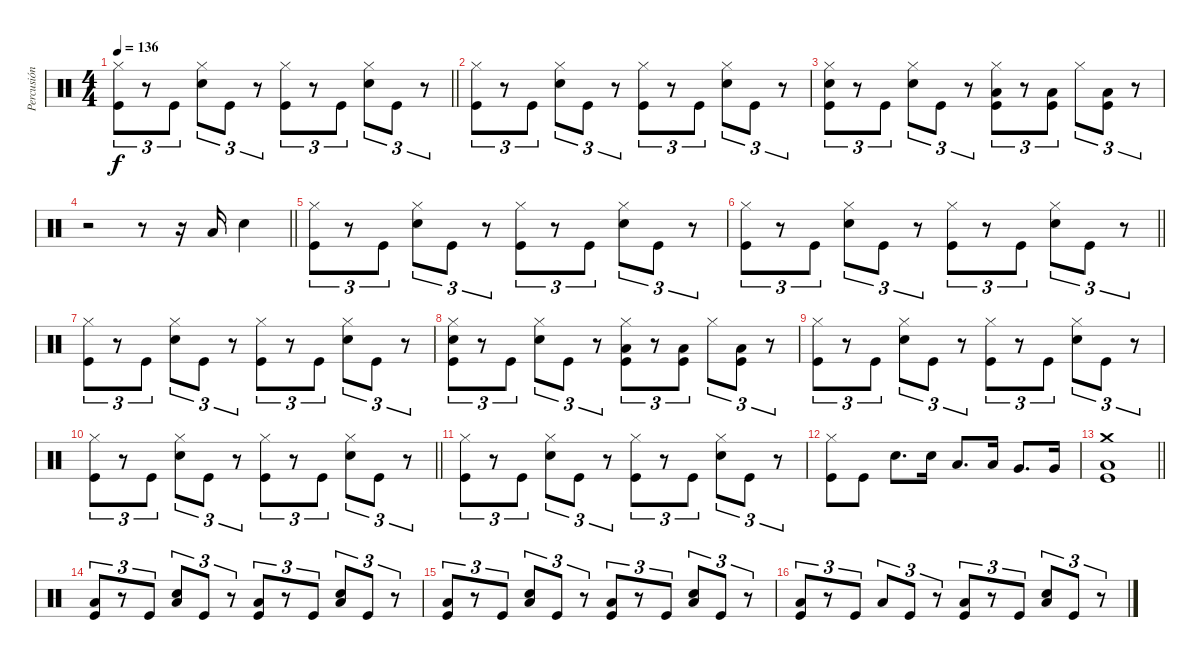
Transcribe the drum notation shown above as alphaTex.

\track ("Percusión" "Percusión") {instrument percussion}
\staff {score}
\articulation defaults
\ts (4 4)
\tempo 136
\clef neutral
\barLineRight lightlight
\ks c
("Hi-Hat (closed)" "Kick (hit)").8{tu (3 2) dy f} r.8{tu (3 2)} "Kick (hit)".8{tu (3 2)} ("Hi-Hat (closed)" "Snare (hit) 2").8{tu (3 2)} "Kick (hit)".8{tu (3 2)} r.8{tu (3 2)} ("Hi-Hat (closed)" "Kick (hit)").8{tu (3 2)} r.8{tu (3 2)} "Kick (hit)".8{tu (3 2)} ("Hi-Hat (closed)" "Snare (hit) 2").8{tu (3 2)} "Kick (hit)".8{tu (3 2)} r.8{tu (3 2)} |
("Hi-Hat (closed)" "Kick (hit)").8{tu (3 2)} r.8{tu (3 2)} "Kick (hit)".8{tu (3 2)} ("Hi-Hat (closed)" "Snare (hit) 2").8{tu (3 2)} "Kick (hit)".8{tu (3 2)} r.8{tu (3 2)} ("Hi-Hat (closed)" "Kick (hit)").8{tu (3 2)} r.8{tu (3 2)} "Kick (hit)".8{tu (3 2)} ("Hi-Hat (closed)" "Snare (hit) 2").8{tu (3 2)} "Kick (hit)".8{tu (3 2)} r.8{tu (3 2)} |
("Hi-Hat (closed)" "Snare (hit) 2" "Kick (hit)").8{tu (3 2)} r.8{tu (3 2)} "Kick (hit)".8{tu (3 2)} ("Hi-Hat (closed)" "Snare (hit) 2").8{tu (3 2)} "Kick (hit)".8{tu (3 2)} r.8{tu (3 2)} ("Hi-Hat (closed)" "Low Tom (hit)" "Kick (hit)").8{tu (3 2)} r.8{tu (3 2)} ("Low Tom (hit)" "Kick (hit)").8{tu (3 2)} "Hi-Hat (closed)".8{tu (3 2)} ("Low Tom (hit)" "Kick (hit)").8{tu (3 2)} r.8{tu (3 2)} |
\barLineRight lightlight
r.2 r.8 r.16 "Low Floor Tom (hit)".16 "Snare (hit) 2".4 |
("Hi-Hat (closed)" "Kick (hit)").8{tu (3 2)} r.8{tu (3 2)} "Kick (hit)".8{tu (3 2)} ("Hi-Hat (closed)" "Snare (hit) 2").8{tu (3 2)} "Kick (hit)".8{tu (3 2)} r.8{tu (3 2)} ("Hi-Hat (closed)" "Kick (hit)").8{tu (3 2)} r.8{tu (3 2)} "Kick (hit)".8{tu (3 2)} ("Hi-Hat (closed)" "Snare (hit) 2").8{tu (3 2)} "Kick (hit)".8{tu (3 2)} r.8{tu (3 2)} |
\barLineRight lightlight
("Hi-Hat (closed)" "Kick (hit)").8{tu (3 2)} r.8{tu (3 2)} "Kick (hit)".8{tu (3 2)} ("Hi-Hat (closed)" "Snare (hit) 2").8{tu (3 2)} "Kick (hit)".8{tu (3 2)} r.8{tu (3 2)} ("Hi-Hat (closed)" "Kick (hit)").8{tu (3 2)} r.8{tu (3 2)} "Kick (hit)".8{tu (3 2)} ("Hi-Hat (closed)" "Snare (hit) 2").8{tu (3 2)} "Kick (hit)".8{tu (3 2)} r.8{tu (3 2)} |
("Hi-Hat (closed)" "Kick (hit)").8{tu (3 2)} r.8{tu (3 2)} "Kick (hit)".8{tu (3 2)} ("Hi-Hat (closed)" "Snare (hit) 2").8{tu (3 2)} "Kick (hit)".8{tu (3 2)} r.8{tu (3 2)} ("Hi-Hat (closed)" "Kick (hit)").8{tu (3 2)} r.8{tu (3 2)} "Kick (hit)".8{tu (3 2)} ("Hi-Hat (closed)" "Snare (hit) 2").8{tu (3 2)} "Kick (hit)".8{tu (3 2)} r.8{tu (3 2)} |
("Hi-Hat (closed)" "Snare (hit) 2" "Kick (hit)").8{tu (3 2)} r.8{tu (3 2)} "Kick (hit)".8{tu (3 2)} ("Hi-Hat (closed)" "Snare (hit) 2").8{tu (3 2)} "Kick (hit)".8{tu (3 2)} r.8{tu (3 2)} ("Hi-Hat (closed)" "Low Tom (hit)" "Kick (hit)").8{tu (3 2)} r.8{tu (3 2)} ("Low Tom (hit)" "Kick (hit)").8{tu (3 2)} "Hi-Hat (closed)".8{tu (3 2)} ("Low Tom (hit)" "Kick (hit)").8{tu (3 2)} r.8{tu (3 2)} |
("Hi-Hat (closed)" "Kick (hit)").8{tu (3 2)} r.8{tu (3 2)} "Kick (hit)".8{tu (3 2)} ("Hi-Hat (closed)" "Snare (hit) 2").8{tu (3 2)} "Kick (hit)".8{tu (3 2)} r.8{tu (3 2)} ("Hi-Hat (closed)" "Kick (hit)").8{tu (3 2)} r.8{tu (3 2)} "Kick (hit)".8{tu (3 2)} ("Hi-Hat (closed)" "Snare (hit) 2").8{tu (3 2)} "Kick (hit)".8{tu (3 2)} r.8{tu (3 2)} |
\barLineRight lightlight
("Hi-Hat (closed)" "Kick (hit)").8{tu (3 2)} r.8{tu (3 2)} "Kick (hit)".8{tu (3 2)} ("Hi-Hat (closed)" "Snare (hit) 2").8{tu (3 2)} "Kick (hit)".8{tu (3 2)} r.8{tu (3 2)} ("Hi-Hat (closed)" "Kick (hit)").8{tu (3 2)} r.8{tu (3 2)} "Kick (hit)".8{tu (3 2)} ("Hi-Hat (closed)" "Snare (hit) 2").8{tu (3 2)} "Kick (hit)".8{tu (3 2)} r.8{tu (3 2)} |
("Hi-Hat (closed)" "Kick (hit)").8{tu (3 2)} r.8{tu (3 2)} "Kick (hit)".8{tu (3 2)} ("Hi-Hat (closed)" "Snare (hit) 2").8{tu (3 2)} "Kick (hit)".8{tu (3 2)} r.8{tu (3 2)} ("Hi-Hat (closed)" "Kick (hit)").8{tu (3 2)} r.8{tu (3 2)} "Kick (hit)".8{tu (3 2)} ("Hi-Hat (closed)" "Snare (hit) 2").8{tu (3 2)} "Kick (hit)".8{tu (3 2)} r.8{tu (3 2)} |
("Hi-Hat (closed)" "Kick (hit)").8 "Kick (hit)".8 "Snare (hit) 2".8{d} "Snare (hit) 2".16 "Low Tom (hit)".8{d} "Low Tom (hit)".16 "Very Low Tom (hit)".8{d} "Very Low Tom (hit)".16 |
\barLineRight lightlight
("Crash medium (hit)" "Low Floor Tom (hit)" "Kick (hit)").1 |
("Low Floor Tom (hit)" "Kick (hit)").8{tu (3 2)} r.8{tu (3 2)} "Kick (hit)".8{tu (3 2)} ("Snare (hit) 2" "Low Floor Tom (hit)").8{tu (3 2)} "Kick (hit)".8{tu (3 2)} r.8{tu (3 2)} ("Low Floor Tom (hit)" "Kick (hit)").8{tu (3 2)} r.8{tu (3 2)} "Kick (hit)".8{tu (3 2)} ("Snare (hit) 2" "Low Floor Tom (hit)").8{tu (3 2)} "Kick (hit)".8{tu (3 2)} r.8{tu (3 2)} |
("Low Floor Tom (hit)" "Kick (hit)").8{tu (3 2)} r.8{tu (3 2)} "Kick (hit)".8{tu (3 2)} ("Snare (hit) 2" "Low Floor Tom (hit)").8{tu (3 2)} "Kick (hit)".8{tu (3 2)} r.8{tu (3 2)} ("Low Floor Tom (hit)" "Kick (hit)").8{tu (3 2)} r.8{tu (3 2)} "Kick (hit)".8{tu (3 2)} ("Snare (hit) 2" "Low Floor Tom (hit)").8{tu (3 2)} "Kick (hit)".8{tu (3 2)} r.8{tu (3 2)} |
("Low Floor Tom (hit)" "Kick (hit)").8{tu (3 2)} r.8{tu (3 2)} "Kick (hit)".8{tu (3 2)} "Low Floor Tom (hit)".8{tu (3 2)} "Kick (hit)".8{tu (3 2)} r.8{tu (3 2)} ("Low Floor Tom (hit)" "Kick (hit)").8{tu (3 2)} r.8{tu (3 2)} "Kick (hit)".8{tu (3 2)} ("Snare (hit) 2" "Low Floor Tom (hit)").8{tu (3 2)} "Kick (hit)".8{tu (3 2)} r.8{tu (3 2)}
